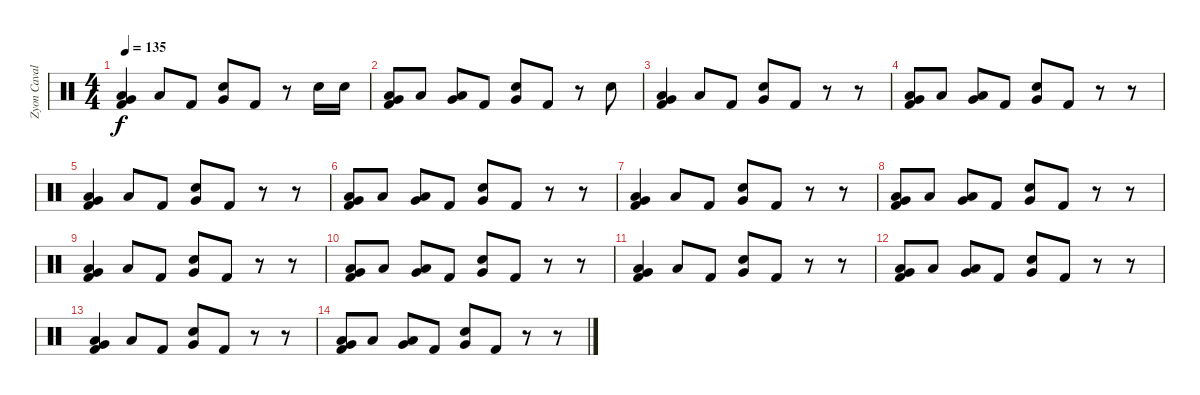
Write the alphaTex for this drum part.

\track ("Zyon Cavalera" "Zyon Caval") {instrument percussion}
\staff {score}
\articulation defaults
\ts (4 4)
\tempo 135
\clef neutral
\ks c
("Very Low Tom (hit)" "Low Floor Tom (hit)" "Kick (hit) 2").4{dy f} "Low Floor Tom (hit)".8 "Kick (hit) 2".8 ("Very Low Tom (hit)" "Snare (hit) 2").8 "Kick (hit) 2".8 r.8 "Snare (hit) 2".16 "Snare (hit) 2".16 |
("Very Low Tom (hit)" "Low Floor Tom (hit)" "Kick (hit) 2").8 "Low Floor Tom (hit)".8 ("Very Low Tom (hit)" "Low Floor Tom (hit)").8 "Kick (hit) 2".8 ("Very Low Tom (hit)" "Snare (hit) 2").8 "Kick (hit) 2".8 r.8 "Snare (hit) 2".8 |
("Very Low Tom (hit)" "Low Floor Tom (hit)" "Kick (hit) 2").4 "Low Floor Tom (hit)".8 "Kick (hit) 2".8 ("Very Low Tom (hit)" "Snare (hit) 2").8 "Kick (hit) 2".8 r.8 r.8 |
("Very Low Tom (hit)" "Low Floor Tom (hit)" "Kick (hit) 2").8 "Low Floor Tom (hit)".8 ("Very Low Tom (hit)" "Low Floor Tom (hit)").8 "Kick (hit) 2".8 ("Very Low Tom (hit)" "Snare (hit) 2").8 "Kick (hit) 2".8 r.8 r.8 |
("Very Low Tom (hit)" "Low Floor Tom (hit)" "Kick (hit) 2").4 "Low Floor Tom (hit)".8 "Kick (hit) 2".8 ("Very Low Tom (hit)" "Snare (hit) 2").8 "Kick (hit) 2".8 r.8 r.8 |
("Very Low Tom (hit)" "Low Floor Tom (hit)" "Kick (hit) 2").8 "Low Floor Tom (hit)".8 ("Very Low Tom (hit)" "Low Floor Tom (hit)").8 "Kick (hit) 2".8 ("Very Low Tom (hit)" "Snare (hit) 2").8 "Kick (hit) 2".8 r.8 r.8 |
("Very Low Tom (hit)" "Low Floor Tom (hit)" "Kick (hit) 2").4 "Low Floor Tom (hit)".8 "Kick (hit) 2".8 ("Very Low Tom (hit)" "Snare (hit) 2").8 "Kick (hit) 2".8 r.8 r.8 |
("Very Low Tom (hit)" "Low Floor Tom (hit)" "Kick (hit) 2").8 "Low Floor Tom (hit)".8 ("Very Low Tom (hit)" "Low Floor Tom (hit)").8 "Kick (hit) 2".8 ("Very Low Tom (hit)" "Snare (hit) 2").8 "Kick (hit) 2".8 r.8 r.8 |
("Very Low Tom (hit)" "Low Floor Tom (hit)" "Kick (hit) 2").4 "Low Floor Tom (hit)".8 "Kick (hit) 2".8 ("Very Low Tom (hit)" "Snare (hit) 2").8 "Kick (hit) 2".8 r.8 r.8 |
("Very Low Tom (hit)" "Low Floor Tom (hit)" "Kick (hit) 2").8 "Low Floor Tom (hit)".8 ("Very Low Tom (hit)" "Low Floor Tom (hit)").8 "Kick (hit) 2".8 ("Very Low Tom (hit)" "Snare (hit) 2").8 "Kick (hit) 2".8 r.8 r.8 |
("Very Low Tom (hit)" "Low Floor Tom (hit)" "Kick (hit) 2").4 "Low Floor Tom (hit)".8 "Kick (hit) 2".8 ("Very Low Tom (hit)" "Snare (hit) 2").8 "Kick (hit) 2".8 r.8 r.8 |
("Very Low Tom (hit)" "Low Floor Tom (hit)" "Kick (hit) 2").8 "Low Floor Tom (hit)".8 ("Very Low Tom (hit)" "Low Floor Tom (hit)").8 "Kick (hit) 2".8 ("Very Low Tom (hit)" "Snare (hit) 2").8 "Kick (hit) 2".8 r.8 r.8 |
("Very Low Tom (hit)" "Low Floor Tom (hit)" "Kick (hit) 2").4 "Low Floor Tom (hit)".8 "Kick (hit) 2".8 ("Very Low Tom (hit)" "Snare (hit) 2").8 "Kick (hit) 2".8 r.8 r.8 |
("Very Low Tom (hit)" "Low Floor Tom (hit)" "Kick (hit) 2").8 "Low Floor Tom (hit)".8 ("Very Low Tom (hit)" "Low Floor Tom (hit)").8 "Kick (hit) 2".8 ("Very Low Tom (hit)" "Snare (hit) 2").8 "Kick (hit) 2".8 r.8 r.8
